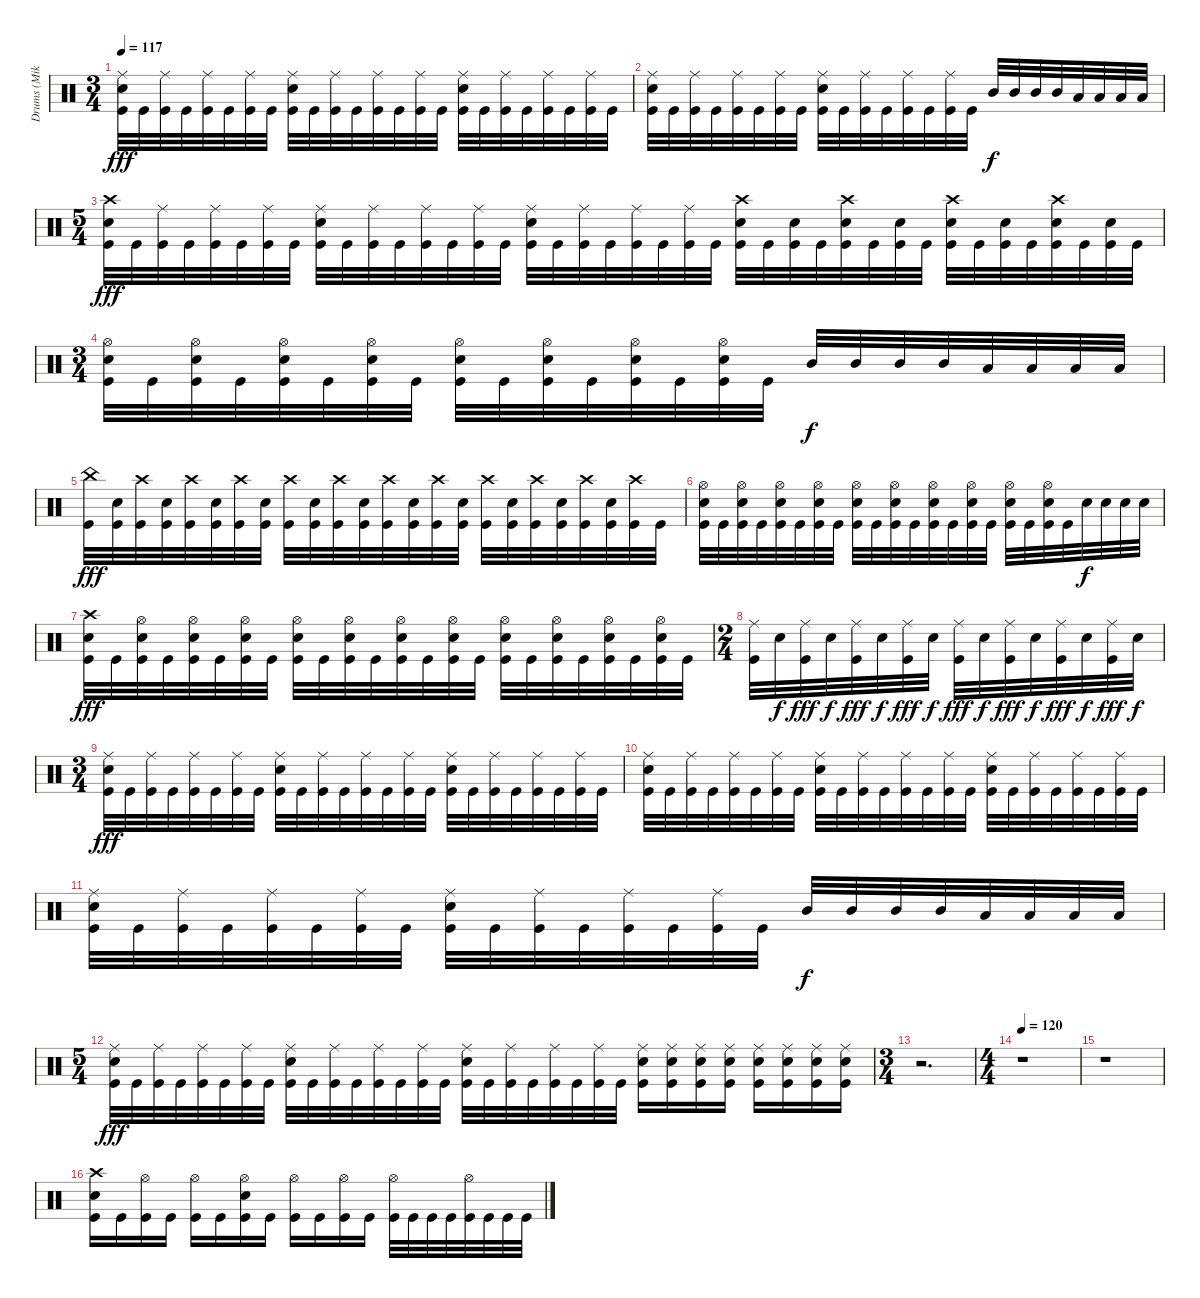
\track ("Drums (Mike)" "Drums (Mik") {instrument percussion}
\staff {score}
\articulation defaults
\ts (3 4)
\tempo 117
\clef neutral
\ks c
("Ride (middle)" "Electric Snare (hit)" "Kick (hit)").32{dy fff} "Kick (hit)".32 ("Ride (middle)" "Kick (hit)").32 "Kick (hit)".32 ("Ride (middle)" "Kick (hit)").32 "Kick (hit)".32 ("Ride (middle)" "Kick (hit)").32 "Kick (hit)".32 ("Ride (middle)" "Electric Snare (hit)" "Kick (hit)").32 "Kick (hit)".32 ("Ride (middle)" "Kick (hit)").32 "Kick (hit)".32 ("Ride (middle)" "Kick (hit)").32 "Kick (hit)".32 ("Ride (middle)" "Kick (hit)").32 "Kick (hit)".32 ("Ride (middle)" "Electric Snare (hit)" "Kick (hit)").32 "Kick (hit)".32 ("Ride (middle)" "Kick (hit)").32 "Kick (hit)".32 ("Ride (middle)" "Kick (hit)").32 "Kick (hit)".32 ("Ride (middle)" "Kick (hit)").32 "Kick (hit)".32 |
("Ride (middle)" "Electric Snare (hit)" "Kick (hit)").32 "Kick (hit)".32 ("Ride (middle)" "Kick (hit)").32 "Kick (hit)".32 ("Ride (middle)" "Kick (hit)").32 "Kick (hit)".32 ("Ride (middle)" "Kick (hit)").32 "Kick (hit)".32 ("Ride (middle)" "Electric Snare (hit)" "Kick (hit)").32 "Kick (hit)".32 ("Ride (middle)" "Kick (hit)").32 "Kick (hit)".32 ("Ride (middle)" "Kick (hit)").32 "Kick (hit)".32 ("Ride (middle)" "Kick (hit)").32 "Kick (hit)".32 "Mid Tom (hit)".32{dy f} "Mid Tom (hit)".32 "Mid Tom (hit)".32 "Mid Tom (hit)".32 "Low Tom (hit)".32 "Low Tom (hit)".32 "Low Tom (hit)".32 "Low Tom (hit)".32 |
\ts (5 4)
("Crash high (hit)" "Electric Snare (hit)" "Kick (hit)").32{dy fff} "Kick (hit)".32 ("Ride (middle)" "Kick (hit)").32 "Kick (hit)".32 ("Ride (middle)" "Kick (hit)").32 "Kick (hit)".32 ("Ride (middle)" "Kick (hit)").32 "Kick (hit)".32 ("Ride (middle)" "Electric Snare (hit)" "Kick (hit)").32 "Kick (hit)".32 ("Ride (middle)" "Kick (hit)").32 "Kick (hit)".32 ("Ride (middle)" "Kick (hit)").32 "Kick (hit)".32 ("Ride (middle)" "Kick (hit)").32 "Kick (hit)".32 ("Ride (middle)" "Electric Snare (hit)" "Kick (hit)").32 "Kick (hit)".32 ("Ride (middle)" "Kick (hit)").32 "Kick (hit)".32 ("Ride (middle)" "Kick (hit)").32 "Kick (hit)".32 ("Ride (middle)" "Kick (hit)").32 "Kick (hit)".32 ("Crash high (hit)" "Electric Snare (hit)" "Kick (hit)").32 "Kick (hit)".32 ("Electric Snare (hit)" "Kick (hit)").32 "Kick (hit)".32 ("Crash high (hit)" "Electric Snare (hit)" "Kick (hit)").32 "Kick (hit)".32 ("Electric Snare (hit)" "Kick (hit)").32 "Kick (hit)".32 ("Crash high (hit)" "Electric Snare (hit)" "Kick (hit)").32 "Kick (hit)".32 ("Electric Snare (hit)" "Kick (hit)").32 "Kick (hit)".32 ("Crash high (hit)" "Electric Snare (hit)" "Kick (hit)").32 "Kick (hit)".32 ("Electric Snare (hit)" "Kick (hit)").32 "Kick (hit)".32 |
\ts (3 4)
("Hi-Hat (open)" "Electric Snare (hit)" "Kick (hit)").32 "Kick (hit)".32 ("Hi-Hat (open)" "Electric Snare (hit)" "Kick (hit)").32 "Kick (hit)".32 ("Hi-Hat (open)" "Electric Snare (hit)" "Kick (hit)").32 "Kick (hit)".32 ("Hi-Hat (open)" "Electric Snare (hit)" "Kick (hit)").32 "Kick (hit)".32 ("Hi-Hat (open)" "Electric Snare (hit)" "Kick (hit)").32 "Kick (hit)".32 ("Hi-Hat (open)" "Electric Snare (hit)" "Kick (hit)").32 "Kick (hit)".32 ("Hi-Hat (open)" "Electric Snare (hit)" "Kick (hit)").32 "Kick (hit)".32 ("Hi-Hat (open)" "Electric Snare (hit)" "Kick (hit)").32 "Kick (hit)".32 "Mid Tom (hit)".32{dy f} "Mid Tom (hit)".32 "Mid Tom (hit)".32 "Mid Tom (hit)".32 "Low Tom (hit)".32 "Low Tom (hit)".32 "Low Tom (hit)".32 "Low Tom (hit)".32 |
("China (hit)" "Kick (hit)").32{dy fff} ("Electric Snare (hit)" "Kick (hit)").32 ("Crash high (hit)" "Kick (hit)").32 ("Electric Snare (hit)" "Kick (hit)").32 ("Crash high (hit)" "Kick (hit)").32 ("Electric Snare (hit)" "Kick (hit)").32 ("Crash high (hit)" "Kick (hit)").32 ("Electric Snare (hit)" "Kick (hit)").32 ("Crash high (hit)" "Kick (hit)").32 ("Electric Snare (hit)" "Kick (hit)").32 ("Crash high (hit)" "Kick (hit)").32 ("Electric Snare (hit)" "Kick (hit)").32 ("Crash high (hit)" "Kick (hit)").32 ("Electric Snare (hit)" "Kick (hit)").32 ("Crash high (hit)" "Kick (hit)").32 ("Electric Snare (hit)" "Kick (hit)").32 ("Crash high (hit)" "Kick (hit)").32 ("Electric Snare (hit)" "Kick (hit)").32 ("Crash high (hit)" "Kick (hit)").32 ("Electric Snare (hit)" "Kick (hit)").32 ("Crash high (hit)" "Kick (hit)").32 ("Electric Snare (hit)" "Kick (hit)").32 ("Crash high (hit)" "Kick (hit)").32 "Kick (hit)".32 |
("Hi-Hat (open)" "Electric Snare (hit)" "Kick (hit)").32 "Kick (hit)".32 ("Hi-Hat (open)" "Electric Snare (hit)" "Kick (hit)").32 "Kick (hit)".32 ("Hi-Hat (open)" "Electric Snare (hit)" "Kick (hit)").32 "Kick (hit)".32 ("Hi-Hat (open)" "Electric Snare (hit)" "Kick (hit)").32 "Kick (hit)".32 ("Hi-Hat (open)" "Electric Snare (hit)" "Kick (hit)").32 "Kick (hit)".32 ("Hi-Hat (open)" "Electric Snare (hit)" "Kick (hit)").32 "Kick (hit)".32 ("Hi-Hat (open)" "Electric Snare (hit)" "Kick (hit)").32 "Kick (hit)".32 ("Hi-Hat (open)" "Electric Snare (hit)" "Kick (hit)").32 "Kick (hit)".32 ("Hi-Hat (open)" "Electric Snare (hit)" "Kick (hit)").32 "Kick (hit)".32 ("Hi-Hat (open)" "Electric Snare (hit)" "Kick (hit)").32 "Kick (hit)".32 "Electric Snare (hit)".32{dy f} "Electric Snare (hit)".32 "Electric Snare (hit)".32 "Electric Snare (hit)".32 |
("Crash high (hit)" "Electric Snare (hit)" "Kick (hit)").32{dy fff} "Kick (hit)".32 ("Hi-Hat (open)" "Electric Snare (hit)" "Kick (hit)").32 "Kick (hit)".32 ("Hi-Hat (open)" "Electric Snare (hit)" "Kick (hit)").32 "Kick (hit)".32 ("Hi-Hat (open)" "Electric Snare (hit)" "Kick (hit)").32 "Kick (hit)".32 ("Hi-Hat (open)" "Electric Snare (hit)" "Kick (hit)").32 "Kick (hit)".32 ("Hi-Hat (open)" "Electric Snare (hit)" "Kick (hit)").32 "Kick (hit)".32 ("Hi-Hat (open)" "Electric Snare (hit)" "Kick (hit)").32 "Kick (hit)".32 ("Hi-Hat (open)" "Electric Snare (hit)" "Kick (hit)").32 "Kick (hit)".32 ("Hi-Hat (open)" "Electric Snare (hit)" "Kick (hit)").32 "Kick (hit)".32 ("Hi-Hat (open)" "Electric Snare (hit)" "Kick (hit)").32 "Kick (hit)".32 ("Hi-Hat (open)" "Electric Snare (hit)" "Kick (hit)").32 "Kick (hit)".32 ("Hi-Hat (open)" "Electric Snare (hit)" "Kick (hit)").32 "Kick (hit)".32 |
\ts (2 4)
("Ride (middle)" "Kick (hit)").32 "Electric Snare (hit)".32{dy f} ("Ride (middle)" "Kick (hit)").32{dy fff} "Electric Snare (hit)".32{dy f} ("Ride (middle)" "Kick (hit)").32{dy fff} "Electric Snare (hit)".32{dy f} ("Ride (middle)" "Kick (hit)").32{dy fff} "Electric Snare (hit)".32{dy f} ("Ride (middle)" "Kick (hit)").32{dy fff} "Electric Snare (hit)".32{dy f} ("Ride (middle)" "Kick (hit)").32{dy fff} "Electric Snare (hit)".32{dy f} ("Ride (middle)" "Kick (hit)").32{dy fff} "Electric Snare (hit)".32{dy f} ("Ride (middle)" "Kick (hit)").32{dy fff} "Electric Snare (hit)".32{dy f} |
\ts (3 4)
("Ride (middle)" "Electric Snare (hit)" "Kick (hit)").32{dy fff} "Kick (hit)".32 ("Ride (middle)" "Kick (hit)").32 "Kick (hit)".32 ("Ride (middle)" "Kick (hit)").32 "Kick (hit)".32 ("Ride (middle)" "Kick (hit)").32 "Kick (hit)".32 ("Ride (middle)" "Electric Snare (hit)" "Kick (hit)").32 "Kick (hit)".32 ("Ride (middle)" "Kick (hit)").32 "Kick (hit)".32 ("Ride (middle)" "Kick (hit)").32 "Kick (hit)".32 ("Ride (middle)" "Kick (hit)").32 "Kick (hit)".32 ("Ride (middle)" "Electric Snare (hit)" "Kick (hit)").32 "Kick (hit)".32 ("Ride (middle)" "Kick (hit)").32 "Kick (hit)".32 ("Ride (middle)" "Kick (hit)").32 "Kick (hit)".32 ("Ride (middle)" "Kick (hit)").32 "Kick (hit)".32 |
("Ride (middle)" "Electric Snare (hit)" "Kick (hit)").32 "Kick (hit)".32 ("Ride (middle)" "Kick (hit)").32 "Kick (hit)".32 ("Ride (middle)" "Kick (hit)").32 "Kick (hit)".32 ("Ride (middle)" "Kick (hit)").32 "Kick (hit)".32 ("Ride (middle)" "Electric Snare (hit)" "Kick (hit)").32 "Kick (hit)".32 ("Ride (middle)" "Kick (hit)").32 "Kick (hit)".32 ("Ride (middle)" "Kick (hit)").32 "Kick (hit)".32 ("Ride (middle)" "Kick (hit)").32 "Kick (hit)".32 ("Ride (middle)" "Electric Snare (hit)" "Kick (hit)").32 "Kick (hit)".32 ("Ride (middle)" "Kick (hit)").32 "Kick (hit)".32 ("Ride (middle)" "Kick (hit)").32 "Kick (hit)".32 ("Ride (middle)" "Kick (hit)").32 "Kick (hit)".32 |
("Ride (middle)" "Electric Snare (hit)" "Kick (hit)").32 "Kick (hit)".32 ("Ride (middle)" "Kick (hit)").32 "Kick (hit)".32 ("Ride (middle)" "Kick (hit)").32 "Kick (hit)".32 ("Ride (middle)" "Kick (hit)").32 "Kick (hit)".32 ("Ride (middle)" "Electric Snare (hit)" "Kick (hit)").32 "Kick (hit)".32 ("Ride (middle)" "Kick (hit)").32 "Kick (hit)".32 ("Ride (middle)" "Kick (hit)").32 "Kick (hit)".32 ("Ride (middle)" "Kick (hit)").32 "Kick (hit)".32 "Mid Tom (hit)".32{dy f} "Mid Tom (hit)".32 "Mid Tom (hit)".32 "Mid Tom (hit)".32 "Low Tom (hit)".32 "Low Tom (hit)".32 "Low Tom (hit)".32 "Low Tom (hit)".32 |
\ts (5 4)
("Ride (middle)" "Electric Snare (hit)" "Kick (hit)").32{dy fff} "Kick (hit)".32 ("Ride (middle)" "Kick (hit)").32 "Kick (hit)".32 ("Ride (middle)" "Kick (hit)").32 "Kick (hit)".32 ("Ride (middle)" "Kick (hit)").32 "Kick (hit)".32 ("Ride (middle)" "Electric Snare (hit)" "Kick (hit)").32 "Kick (hit)".32 ("Ride (middle)" "Kick (hit)").32 "Kick (hit)".32 ("Ride (middle)" "Kick (hit)").32 "Kick (hit)".32 ("Ride (middle)" "Kick (hit)").32 "Kick (hit)".32 ("Ride (middle)" "Electric Snare (hit)" "Kick (hit)").32 "Kick (hit)".32 ("Ride (middle)" "Kick (hit)").32 "Kick (hit)".32 ("Ride (middle)" "Kick (hit)").32 "Kick (hit)".32 ("Ride (middle)" "Kick (hit)").32 "Kick (hit)".32 ("Ride (middle)" "Electric Snare (hit)" "Kick (hit)").16 ("Ride (middle)" "Electric Snare (hit)" "Kick (hit)").16 ("Ride (middle)" "Electric Snare (hit)" "Kick (hit)").16 ("Ride (middle)" "Electric Snare (hit)" "Kick (hit)").16 ("Ride (middle)" "Electric Snare (hit)" "Kick (hit)").16 ("Ride (middle)" "Electric Snare (hit)" "Kick (hit)").16 ("Ride (middle)" "Electric Snare (hit)" "Kick (hit)").16 ("Ride (middle)" "Electric Snare (hit)" "Kick (hit)").16 |
\ts (3 4)
r.2{d} |
\ts (4 4)
\tempo 120
r.1 |
r.1 |
("Crash high (hit)" "Electric Snare (hit)" "Kick (hit)").16 "Kick (hit)".16 ("Hi-Hat (open)" "Kick (hit)").16 "Kick (hit)".16 ("Hi-Hat (open)" "Kick (hit)").16 "Kick (hit)".16 ("Hi-Hat (open)" "Electric Snare (hit)" "Kick (hit)").16 "Kick (hit)".16 ("Hi-Hat (open)" "Kick (hit)").16 "Kick (hit)".16 ("Hi-Hat (open)" "Kick (hit)").16 "Kick (hit)".16 ("Hi-Hat (open)" "Kick (hit)").32 "Kick (hit)".32 "Kick (hit)".32 "Kick (hit)".32 ("Hi-Hat (open)" "Kick (hit)").32 "Kick (hit)".32 "Kick (hit)".32 "Kick (hit)".32
